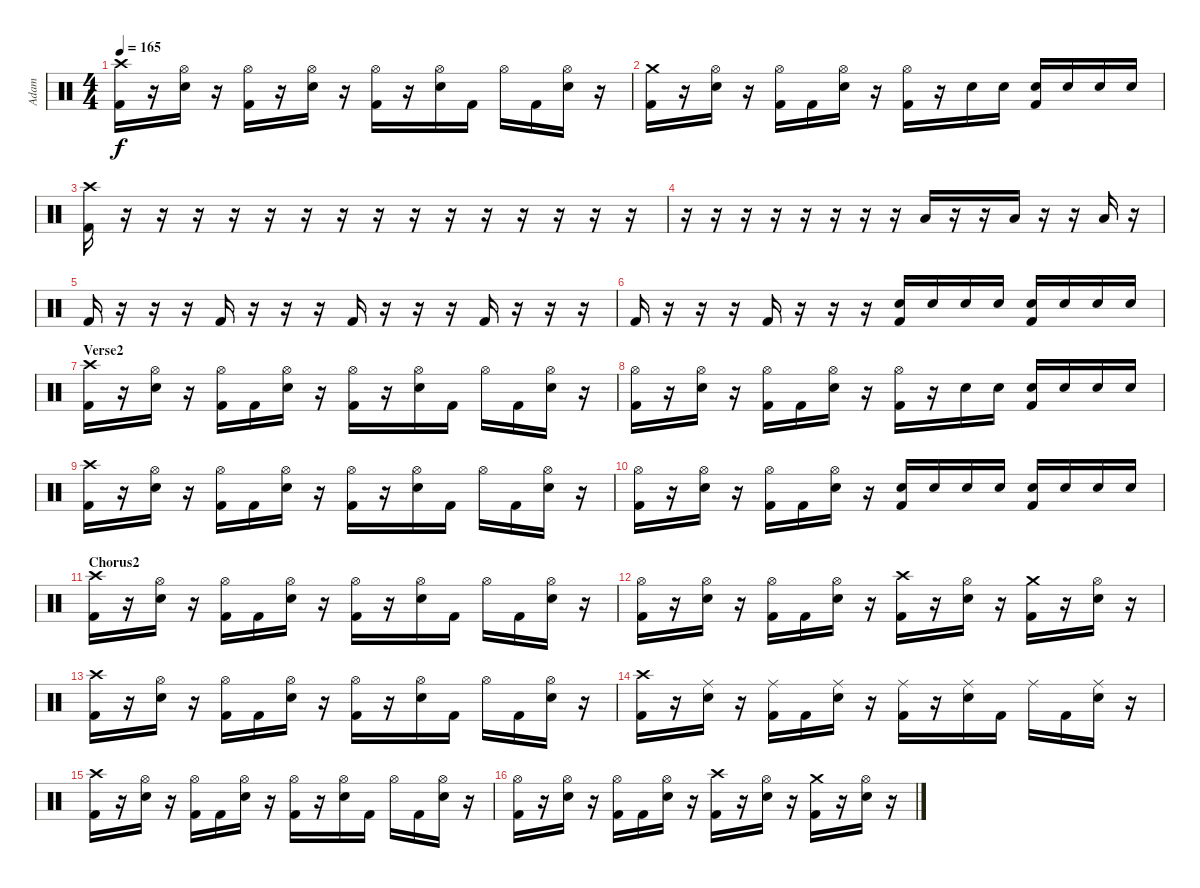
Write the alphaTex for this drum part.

\track ("Adam" "Adam") {instrument percussion}
\staff {score}
\articulation defaults
\ts (4 4)
\tempo 165
\clef neutral
\ks c
("Crash high (hit)" "Kick (hit) 2").16{dy f} r.16 ("Hi-Hat (open)" "Electric Snare (hit)").16 r.16 ("Hi-Hat (open)" "Kick (hit) 2").16 r.16 ("Hi-Hat (open)" "Electric Snare (hit)").16 r.16 ("Hi-Hat (open)" "Kick (hit) 2").16 r.16 ("Hi-Hat (open)" "Electric Snare (hit)").16 "Kick (hit) 2".16 "Hi-Hat (open)".16 "Kick (hit) 2".16 ("Hi-Hat (open)" "Electric Snare (hit)").16 r.16 |
("Crash medium (hit)" "Kick (hit) 2").16 r.16 ("Hi-Hat (open)" "Electric Snare (hit)").16 r.16 ("Hi-Hat (open)" "Kick (hit) 2").16 "Kick (hit) 2".16 ("Hi-Hat (open)" "Electric Snare (hit)").16 r.16 ("Hi-Hat (open)" "Kick (hit) 2").16 r.16 "Electric Snare (hit)".16 "Electric Snare (hit)".16 ("Electric Snare (hit)" "Kick (hit) 2").16 "Electric Snare (hit)".16 "Electric Snare (hit)".16 "Electric Snare (hit)".16 |
("Crash high (hit)" "Kick (hit) 2").16 r.16 r.16 r.16 r.16 r.16 r.16 r.16 r.16 r.16 r.16 r.16 r.16 r.16 r.16 r.16 |
r.16 r.16 r.16 r.16 r.16 r.16 r.16 r.16 "Low Tom (hit)".16 r.16 r.16 "Low Tom (hit)".16 r.16 r.16 "Low Tom (hit)".16 r.16 |
"Kick (hit) 2".16 r.16 r.16 r.16 "Kick (hit) 2".16 r.16 r.16 r.16 "Kick (hit) 2".16 r.16 r.16 r.16 "Kick (hit) 2".16 r.16 r.16 r.16 |
"Kick (hit) 2".16 r.16 r.16 r.16 "Kick (hit) 2".16 r.16 r.16 r.16 ("Electric Snare (hit)" "Kick (hit) 2").16 "Electric Snare (hit)".16 "Electric Snare (hit)".16 "Electric Snare (hit)".16 ("Electric Snare (hit)" "Kick (hit) 2").16 "Electric Snare (hit)".16 "Electric Snare (hit)".16 "Electric Snare (hit)".16 |
\section ("" "Verse2")
("Crash high (hit)" "Kick (hit) 2").16 r.16 ("Hi-Hat (open)" "Electric Snare (hit)").16 r.16 ("Hi-Hat (open)" "Kick (hit) 2").16 "Kick (hit) 2".16 ("Hi-Hat (open)" "Electric Snare (hit)").16 r.16 ("Hi-Hat (open)" "Kick (hit) 2").16 r.16 ("Hi-Hat (open)" "Electric Snare (hit)").16 "Kick (hit) 2".16 "Hi-Hat (open)".16 "Kick (hit) 2".16 ("Hi-Hat (open)" "Electric Snare (hit)").16 r.16 |
("Hi-Hat (open)" "Kick (hit) 2").16 r.16 ("Hi-Hat (open)" "Electric Snare (hit)").16 r.16 ("Hi-Hat (open)" "Kick (hit) 2").16 "Kick (hit) 2".16 ("Hi-Hat (open)" "Electric Snare (hit)").16 r.16 ("Hi-Hat (open)" "Kick (hit) 2").16 r.16 "Electric Snare (hit)".16 "Electric Snare (hit)".16 ("Electric Snare (hit)" "Kick (hit) 2").16 "Electric Snare (hit)".16 "Electric Snare (hit)".16 "Electric Snare (hit)".16 |
("Crash high (hit)" "Kick (hit) 2").16 r.16 ("Hi-Hat (open)" "Electric Snare (hit)").16 r.16 ("Hi-Hat (open)" "Kick (hit) 2").16 "Kick (hit) 2".16 ("Hi-Hat (open)" "Electric Snare (hit)").16 r.16 ("Hi-Hat (open)" "Kick (hit) 2").16 r.16 ("Hi-Hat (open)" "Electric Snare (hit)").16 "Kick (hit) 2".16 "Hi-Hat (open)".16 "Kick (hit) 2".16 ("Hi-Hat (open)" "Electric Snare (hit)").16 r.16 |
("Hi-Hat (open)" "Kick (hit) 2").16 r.16 ("Hi-Hat (open)" "Electric Snare (hit)").16 r.16 ("Hi-Hat (open)" "Kick (hit) 2").16 "Kick (hit) 2".16 ("Hi-Hat (open)" "Electric Snare (hit)").16 r.16 ("Electric Snare (hit)" "Kick (hit) 2").16 "Electric Snare (hit)".16 "Electric Snare (hit)".16 "Electric Snare (hit)".16 ("Electric Snare (hit)" "Kick (hit) 2").16 "Electric Snare (hit)".16 "Electric Snare (hit)".16 "Electric Snare (hit)".16 |
\section ("" "Chorus2")
("Crash high (hit)" "Kick (hit) 2").16 r.16 ("Hi-Hat (open)" "Electric Snare (hit)").16 r.16 ("Hi-Hat (open)" "Kick (hit) 2").16 "Kick (hit) 2".16 ("Hi-Hat (open)" "Electric Snare (hit)").16 r.16 ("Hi-Hat (open)" "Kick (hit) 2").16 r.16 ("Hi-Hat (open)" "Electric Snare (hit)").16 "Kick (hit) 2".16 "Hi-Hat (open)".16 "Kick (hit) 2".16 ("Hi-Hat (open)" "Electric Snare (hit)").16 r.16 |
("Hi-Hat (open)" "Kick (hit) 2").16 r.16 ("Hi-Hat (open)" "Electric Snare (hit)").16 r.16 ("Hi-Hat (open)" "Kick (hit) 2").16 "Kick (hit) 2".16 ("Hi-Hat (open)" "Electric Snare (hit)").16 r.16 ("Crash high (hit)" "Kick (hit) 2").16 r.16 ("Hi-Hat (open)" "Electric Snare (hit)").16 r.16 ("Crash medium (hit)" "Kick (hit) 2").16 r.16 ("Hi-Hat (open)" "Electric Snare (hit)").16 r.16 |
("Crash high (hit)" "Kick (hit) 2").16 r.16 ("Hi-Hat (open)" "Electric Snare (hit)").16 r.16 ("Hi-Hat (open)" "Kick (hit) 2").16 "Kick (hit) 2".16 ("Hi-Hat (open)" "Electric Snare (hit)").16 r.16 ("Hi-Hat (open)" "Kick (hit) 2").16 r.16 ("Hi-Hat (open)" "Electric Snare (hit)").16 "Kick (hit) 2".16 "Hi-Hat (open)".16 "Kick (hit) 2".16 ("Hi-Hat (open)" "Electric Snare (hit)").16 r.16 |
("Crash high (hit)" "Kick (hit) 2").16 r.16 ("Ride (middle)" "Electric Snare (hit)").16 r.16 ("Ride (middle)" "Kick (hit) 2").16 "Kick (hit) 2".16 ("Ride (middle)" "Electric Snare (hit)").16 r.16 ("Ride (middle)" "Kick (hit) 2").16 r.16 ("Ride (middle)" "Electric Snare (hit)").16 "Kick (hit) 2".16 "Ride (middle)".16 "Kick (hit) 2".16 ("Ride (middle)" "Electric Snare (hit)").16 r.16 |
("Crash high (hit)" "Kick (hit) 2").16 r.16 ("Hi-Hat (open)" "Electric Snare (hit)").16 r.16 ("Hi-Hat (open)" "Kick (hit) 2").16 "Kick (hit) 2".16 ("Hi-Hat (open)" "Electric Snare (hit)").16 r.16 ("Hi-Hat (open)" "Kick (hit) 2").16 r.16 ("Hi-Hat (open)" "Electric Snare (hit)").16 "Kick (hit) 2".16 "Hi-Hat (open)".16 "Kick (hit) 2".16 ("Hi-Hat (open)" "Electric Snare (hit)").16 r.16 |
("Hi-Hat (open)" "Kick (hit) 2").16 r.16 ("Hi-Hat (open)" "Electric Snare (hit)").16 r.16 ("Hi-Hat (open)" "Kick (hit) 2").16 "Kick (hit) 2".16 ("Hi-Hat (open)" "Electric Snare (hit)").16 r.16 ("Crash high (hit)" "Kick (hit) 2").16 r.16 ("Hi-Hat (open)" "Electric Snare (hit)").16 r.16 ("Crash medium (hit)" "Kick (hit) 2").16 r.16 ("Hi-Hat (open)" "Electric Snare (hit)").16 r.16
